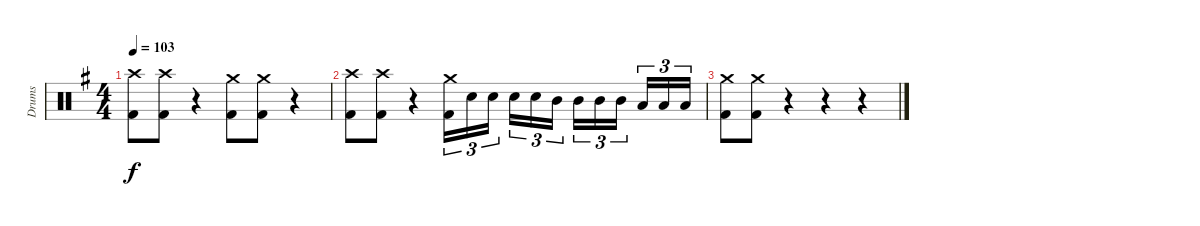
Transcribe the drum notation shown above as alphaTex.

\track ("Drums" "Drums") {instrument percussion}
\staff {score}
\articulation defaults
\ts (4 4)
\tempo 103
\clef neutral
\ks eminor
("Crash high (hit)" "Kick (hit) 2").8{dy f} ("Crash high (hit)" "Kick (hit) 2").8 r.4 ("Crash medium (hit)" "Kick (hit) 2").8 ("Crash medium (hit)" "Kick (hit) 2").8 r.4 |
("Crash high (hit)" "Kick (hit) 2").8 ("Crash high (hit)" "Kick (hit) 2").8 r.4 ("Crash medium (hit)" "Kick (hit) 2").16{tu (3 2)} "Electric Snare (hit)".16{tu (3 2)} "Electric Snare (hit)".16{tu (3 2) beam splitsecondary} "Electric Snare (hit)".16{tu (3 2)} "Electric Snare (hit)".16{tu (3 2)} "Mid Tom (hit)".16{tu (3 2)} "Mid Tom (hit)".16{tu (3 2)} "Mid Tom (hit)".16{tu (3 2)} "Mid Tom (hit)".16{tu (3 2) beam splitsecondary} "Low Tom (hit)".16{tu (3 2)} "Low Tom (hit)".16{tu (3 2)} "Low Tom (hit)".16{tu (3 2)} |
("Crash medium (hit)" "Kick (hit) 2").8 ("Crash medium (hit)" "Kick (hit) 2").8 r.4 r.4 r.4
